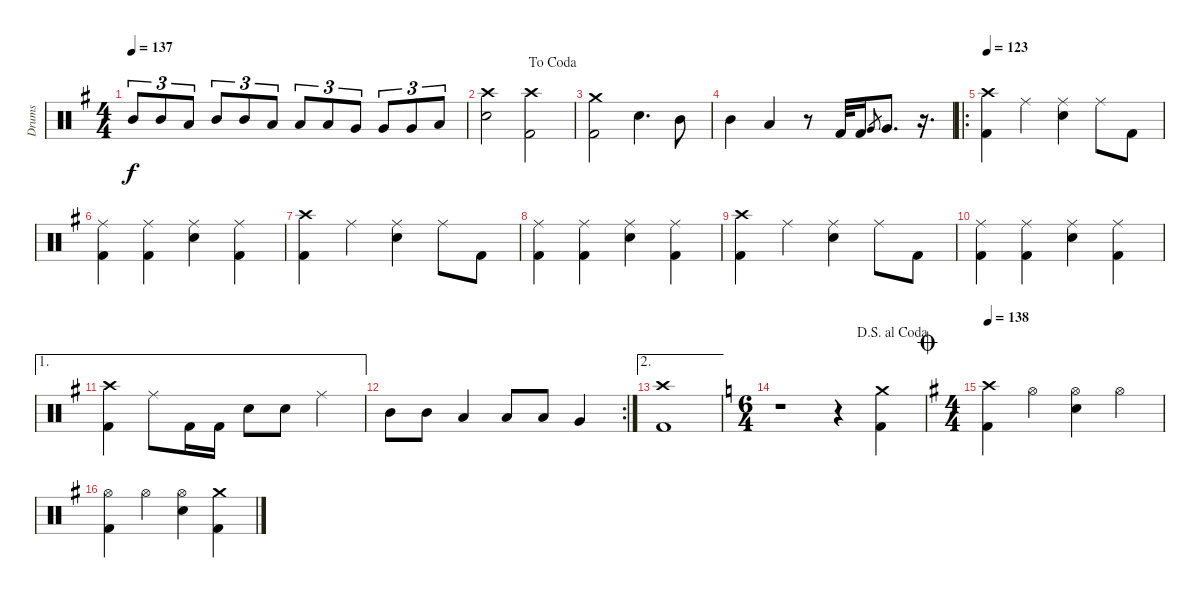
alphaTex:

\track ("Drums" "Drums") {mute instrument percussion}
\staff {score}
\articulation defaults
\ts (4 4)
\tempo 137
\clef neutral
\ks g "Mid Tom (hit)".8{tu (3 2) dy f} "Mid Tom (hit)".8{tu (3 2)} "Low Tom (hit)".8{tu (3 2)} "Mid Tom (hit)".8{tu (3 2)} "Mid Tom (hit)".8{tu (3 2)} "Low Tom (hit)".8{tu (3 2)} "Low Tom (hit)".8{tu (3 2)} "Low Tom (hit)".8{tu (3 2)} "Very Low Tom (hit)".8{tu (3 2)} "Very Low Tom (hit)".8{tu (3 2)} "Very Low Tom (hit)".8{tu (3 2)} "Low Floor Tom (hit)".8{tu (3 2)}
|
\jump dacoda
("Crash high (hit)" "Snare (hit) 2").2 ("Crash high (hit)" "Kick (hit) 2").2 |
("Crash medium (hit)" "Kick (hit) 2").2 "Snare (hit) 2".4{d} "Mid Tom (hit)".8 |
"Mid Tom (hit)".4 "Low Tom (hit)".4 r.8 "Kick (hit) 2".32 "Kick (hit) 2".16 "Very Low Tom (hit)".8{gr} "Very Low Tom (hit)".8{d} r.16{d} |
\ro
\tempo 123
("Crash high (hit)" "Kick (hit) 2").4 "Ride (middle)".4 ("Ride (middle)" "Snare (hit) 2").4 "Ride (middle)".8 "Kick (hit) 2".8 |
("Ride (middle)" "Kick (hit) 2").4 ("Ride (middle)" "Kick (hit) 2").4 ("Ride (middle)" "Snare (hit) 2").4 ("Ride (middle)" "Kick (hit) 2").4 |
("Crash high (hit)" "Kick (hit) 2").4 "Ride (middle)".4 ("Ride (middle)" "Snare (hit) 2").4 "Ride (middle)".8 "Kick (hit) 2".8 |
("Ride (middle)" "Kick (hit) 2").4 ("Ride (middle)" "Kick (hit) 2").4 ("Ride (middle)" "Snare (hit) 2").4 ("Ride (middle)" "Kick (hit) 2").4 |
("Crash high (hit)" "Kick (hit) 2").4 "Ride (middle)".4 ("Ride (middle)" "Snare (hit) 2").4 "Ride (middle)".8 "Kick (hit) 2".8 |
("Ride (middle)" "Kick (hit) 2").4 ("Ride (middle)" "Kick (hit) 2").4 ("Ride (middle)" "Snare (hit) 2").4 ("Ride (middle)" "Kick (hit) 2").4 |
\ae 1
("Crash high (hit)" "Kick (hit) 2").4 "Ride (middle)".8 "Kick (hit) 2".16 "Kick (hit) 2".16 "Snare (hit) 2".8 "Snare (hit) 2".8 "Ride (middle)".4 |
\rc 2 "Mid Tom (hit)".8 "Mid Tom (hit)".8 "Low Tom (hit)".4 "Low Tom (hit)".8 "Low Tom (hit)".8 "Very Low Tom (hit)".4
|
\ae 2
("Crash high (hit)" "Kick (hit) 2").1 |
\ts (6 4)
\jump dalsegnoalcoda
\ks c
r.1 r.4 ("Crash medium (hit)" "Kick (hit) 2").4 |
\ts (4 4)
\jump coda
\tempo 138
\ks g
("Crash high (hit)" "Kick (hit) 2").4 "Hi-Hat (open)".4 ("Hi-Hat (open)" "Snare (hit) 2").4 "Hi-Hat (open)".4 |
("Hi-Hat (open)" "Kick (hit) 2").4 "Hi-Hat (open)".4 ("Hi-Hat (open)" "Snare (hit) 2").4 ("Crash medium (hit)" "Kick (hit) 2").4
